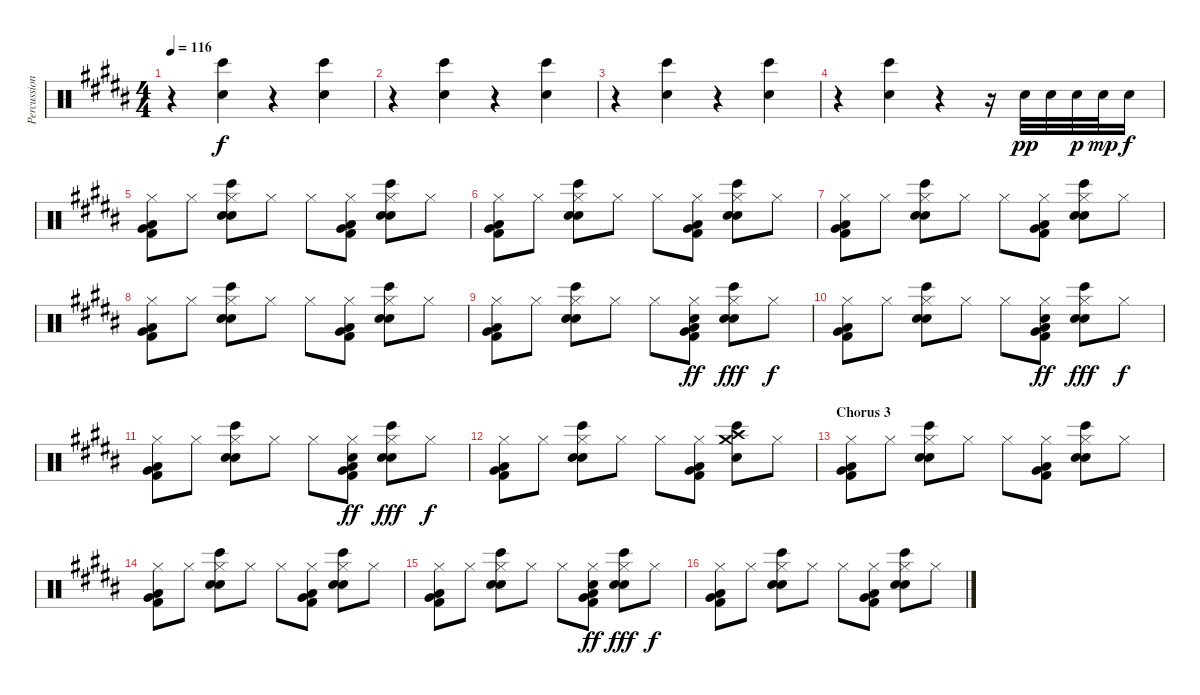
\track ("Percussion" "Percussion") {instrument percussion}
\staff {score}
\articulation defaults
\ts (4 4)
\tempo 116
\clef neutral
\ks b
r.4{dy f} ("Hand Clap (hit)" "Bongo High (hit)").4 r.4 ("Hand Clap (hit)" "Bongo High (hit)").4 |
r.4 ("Hand Clap (hit)" "Bongo High (hit)").4 r.4 ("Hand Clap (hit)" "Bongo High (hit)").4 |
r.4 ("Hand Clap (hit)" "Bongo High (hit)").4 r.4 ("Hand Clap (hit)" "Bongo High (hit)").4 |
r.4 ("Hand Clap (hit)" "Bongo High (hit)").4 r.4 r.16 "Snare (hit) 2".32{dy pp} "Snare (hit) 2".32 "Snare (hit) 2".32{dy p} "Snare (hit) 2".32{dy mp} "Snare (hit) 2".16{dy f} |
("Low Tom (hit)" "Very Low Tom (hit)" "Kick (hit) 2" "Hi-Hat (closed)").8 "Hi-Hat (closed)".8 ("Bongo High (hit)" "Hand Clap (hit)" "Snare (hit) 2" "Hi-Hat (closed)").8 "Hi-Hat (closed)".8 "Hi-Hat (closed)".8 ("Low Tom (hit)" "Very Low Tom (hit)" "Kick (hit) 2" "Hi-Hat (closed)").8 ("Bongo High (hit)" "Hand Clap (hit)" "Snare (hit) 2" "Hi-Hat (closed)").8 "Hi-Hat (closed)".8 |
("Low Tom (hit)" "Very Low Tom (hit)" "Kick (hit) 2" "Hi-Hat (closed)").8 "Hi-Hat (closed)".8 ("Bongo High (hit)" "Hand Clap (hit)" "Snare (hit) 2" "Hi-Hat (closed)").8 "Hi-Hat (closed)".8 "Hi-Hat (closed)".8 ("Low Tom (hit)" "Very Low Tom (hit)" "Kick (hit) 2" "Hi-Hat (closed)").8 ("Bongo High (hit)" "Hand Clap (hit)" "Snare (hit) 2" "Hi-Hat (closed)").8 "Hi-Hat (closed)".8 |
("Low Tom (hit)" "Very Low Tom (hit)" "Kick (hit) 2" "Hi-Hat (closed)").8 "Hi-Hat (closed)".8 ("Bongo High (hit)" "Hand Clap (hit)" "Snare (hit) 2" "Hi-Hat (closed)").8 "Hi-Hat (closed)".8 "Hi-Hat (closed)".8 ("Low Tom (hit)" "Very Low Tom (hit)" "Kick (hit) 2" "Hi-Hat (closed)").8 ("Bongo High (hit)" "Hand Clap (hit)" "Snare (hit) 2" "Hi-Hat (closed)").8 "Hi-Hat (closed)".8 |
("Low Tom (hit)" "Very Low Tom (hit)" "Kick (hit) 2" "Hi-Hat (closed)").8 "Hi-Hat (closed)".8 ("Bongo High (hit)" "Hand Clap (hit)" "Snare (hit) 2" "Hi-Hat (closed)").8 "Hi-Hat (closed)".8 "Hi-Hat (closed)".8 ("Low Tom (hit)" "Very Low Tom (hit)" "Kick (hit) 2" "Hi-Hat (closed)").8 ("Bongo High (hit)" "Hand Clap (hit)" "Snare (hit) 2" "Hi-Hat (closed)").8 "Hi-Hat (closed)".8 |
("Low Tom (hit)" "Very Low Tom (hit)" "Kick (hit) 2" "Hi-Hat (closed)").8 "Hi-Hat (closed)".8 ("Bongo High (hit)" "Hand Clap (hit)" "Snare (hit) 2" "Hi-Hat (closed)").8 "Hi-Hat (closed)".8 "Hi-Hat (closed)".8 ("Low Tom (hit)" "Very Low Tom (hit)" "Kick (hit) 2" "Hi-Hat (closed)" "Hand Clap (hit)").8{dy ff} ("Bongo High (hit)" "Hand Clap (hit)" "Snare (hit) 2" "Hi-Hat (closed)").8{dy fff} "Hi-Hat (closed)".8{dy f} |
("Low Tom (hit)" "Very Low Tom (hit)" "Kick (hit) 2" "Hi-Hat (closed)").8 "Hi-Hat (closed)".8 ("Bongo High (hit)" "Hand Clap (hit)" "Snare (hit) 2" "Hi-Hat (closed)").8 "Hi-Hat (closed)".8 "Hi-Hat (closed)".8 ("Low Tom (hit)" "Very Low Tom (hit)" "Kick (hit) 2" "Hi-Hat (closed)" "Hand Clap (hit)").8{dy ff} ("Bongo High (hit)" "Hand Clap (hit)" "Snare (hit) 2" "Hi-Hat (closed)").8{dy fff} "Hi-Hat (closed)".8{dy f} |
("Low Tom (hit)" "Very Low Tom (hit)" "Kick (hit) 2" "Hi-Hat (closed)").8 "Hi-Hat (closed)".8 ("Bongo High (hit)" "Hand Clap (hit)" "Snare (hit) 2" "Hi-Hat (closed)").8 "Hi-Hat (closed)".8 "Hi-Hat (closed)".8 ("Low Tom (hit)" "Very Low Tom (hit)" "Kick (hit) 2" "Hi-Hat (closed)" "Hand Clap (hit)").8{dy ff} ("Bongo High (hit)" "Hand Clap (hit)" "Snare (hit) 2" "Hi-Hat (closed)").8{dy fff} "Hi-Hat (closed)".8{dy f} |
("Low Tom (hit)" "Very Low Tom (hit)" "Kick (hit) 2" "Hi-Hat (closed)").8 "Hi-Hat (closed)".8 ("Bongo High (hit)" "Hand Clap (hit)" "Snare (hit) 2" "Hi-Hat (closed)").8 "Hi-Hat (closed)".8 "Hi-Hat (closed)".8 ("Low Tom (hit)" "Very Low Tom (hit)" "Kick (hit) 2" "Hi-Hat (closed)").8 ("Bongo High (hit)" "Hand Clap (hit)" "Crash medium (hit)" "Crash high (hit)").8 "Hi-Hat (closed)".8 |
\section ("" "Chorus 3")
("Low Tom (hit)" "Very Low Tom (hit)" "Kick (hit) 2" "Hi-Hat (closed)").8 "Hi-Hat (closed)".8 ("Bongo High (hit)" "Hand Clap (hit)" "Snare (hit) 2" "Hi-Hat (closed)").8 "Hi-Hat (closed)".8 "Hi-Hat (closed)".8 ("Low Tom (hit)" "Very Low Tom (hit)" "Kick (hit) 2" "Hi-Hat (closed)").8 ("Bongo High (hit)" "Hand Clap (hit)" "Snare (hit) 2" "Hi-Hat (closed)").8 "Hi-Hat (closed)".8 |
("Low Tom (hit)" "Very Low Tom (hit)" "Kick (hit) 2" "Hi-Hat (closed)").8 "Hi-Hat (closed)".8 ("Bongo High (hit)" "Hand Clap (hit)" "Snare (hit) 2" "Hi-Hat (closed)").8 "Hi-Hat (closed)".8 "Hi-Hat (closed)".8 ("Low Tom (hit)" "Very Low Tom (hit)" "Kick (hit) 2" "Hi-Hat (closed)").8 ("Bongo High (hit)" "Hand Clap (hit)" "Snare (hit) 2" "Hi-Hat (closed)").8 "Hi-Hat (closed)".8 |
("Low Tom (hit)" "Very Low Tom (hit)" "Kick (hit) 2" "Hi-Hat (closed)").8 "Hi-Hat (closed)".8 ("Bongo High (hit)" "Hand Clap (hit)" "Snare (hit) 2" "Hi-Hat (closed)").8 "Hi-Hat (closed)".8 "Hi-Hat (closed)".8 ("Low Tom (hit)" "Very Low Tom (hit)" "Kick (hit) 2" "Hi-Hat (closed)" "Hand Clap (hit)").8{dy ff} ("Bongo High (hit)" "Hand Clap (hit)" "Snare (hit) 2" "Hi-Hat (closed)").8{dy fff} "Hi-Hat (closed)".8{dy f} |
("Low Tom (hit)" "Very Low Tom (hit)" "Kick (hit) 2" "Hi-Hat (closed)").8 "Hi-Hat (closed)".8 ("Bongo High (hit)" "Hand Clap (hit)" "Snare (hit) 2" "Hi-Hat (closed)").8 "Hi-Hat (closed)".8 "Hi-Hat (closed)".8 ("Low Tom (hit)" "Very Low Tom (hit)" "Kick (hit) 2" "Hi-Hat (closed)").8 ("Bongo High (hit)" "Hand Clap (hit)" "Snare (hit) 2" "Hi-Hat (closed)").8 "Hi-Hat (closed)".8
